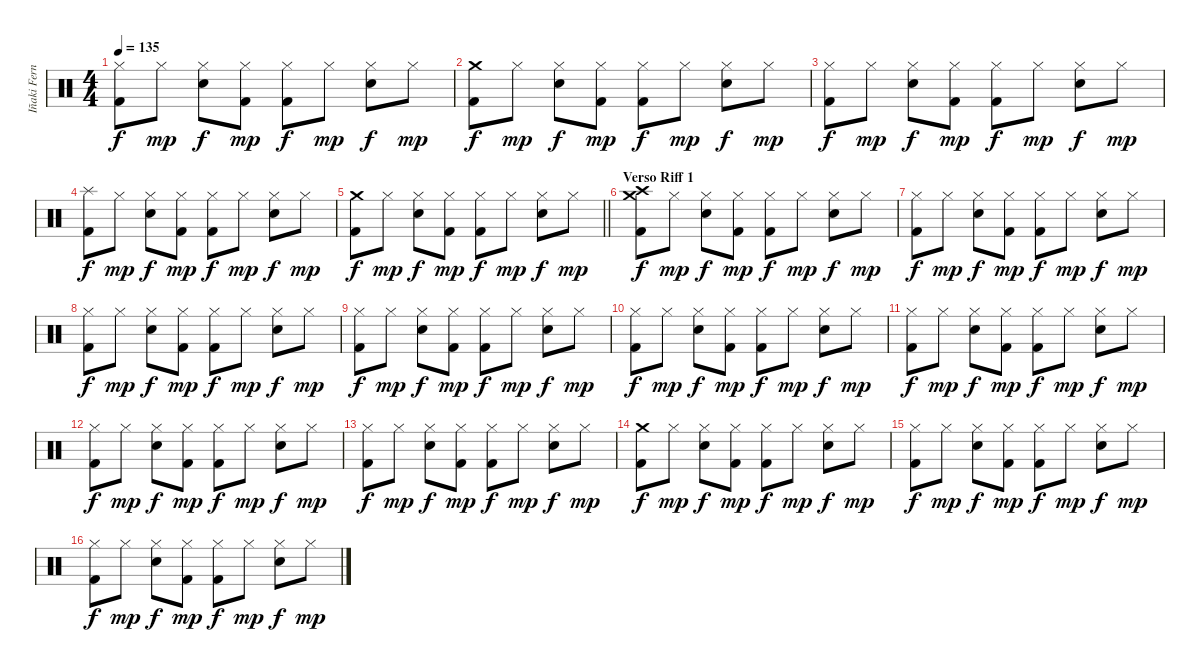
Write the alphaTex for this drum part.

\track ("Iñaki Fernández" "Iñaki Fern") {instrument percussion}
\staff {score}
\articulation defaults
\ts (4 4)
\tempo 135
\clef neutral
\ks c
("Hi-Hat (closed)" "Kick (hit) 2").8{dy f} "Hi-Hat (closed)".8{dy mp} ("Hi-Hat (closed)" "Snare (hit) 2").8{dy f} ("Hi-Hat (closed)" "Kick (hit) 2").8{dy mp} ("Hi-Hat (closed)" "Kick (hit) 2").8{dy f} "Hi-Hat (closed)".8{dy mp} ("Hi-Hat (closed)" "Snare (hit) 2").8{dy f} "Hi-Hat (closed)".8{dy mp} |
("Crash medium (hit)" "Kick (hit) 2").8{dy f} "Hi-Hat (closed)".8{dy mp} ("Hi-Hat (closed)" "Snare (hit) 2").8{dy f} ("Hi-Hat (closed)" "Kick (hit) 2").8{dy mp} ("Hi-Hat (closed)" "Kick (hit) 2").8{dy f} "Hi-Hat (closed)".8{dy mp} ("Hi-Hat (closed)" "Snare (hit) 2").8{dy f} "Hi-Hat (closed)".8{dy mp} |
("Hi-Hat (closed)" "Kick (hit) 2").8{dy f} "Hi-Hat (closed)".8{dy mp} ("Hi-Hat (closed)" "Snare (hit) 2").8{dy f} ("Hi-Hat (closed)" "Kick (hit) 2").8{dy mp} ("Hi-Hat (closed)" "Kick (hit) 2").8{dy f} "Hi-Hat (closed)".8{dy mp} ("Hi-Hat (closed)" "Snare (hit) 2").8{dy f} "Hi-Hat (closed)".8{dy mp} |
("Splash (hit)" "Kick (hit) 2").8{dy f} "Hi-Hat (closed)".8{dy mp} ("Hi-Hat (closed)" "Snare (hit) 2").8{dy f} ("Hi-Hat (closed)" "Kick (hit) 2").8{dy mp} ("Hi-Hat (closed)" "Kick (hit) 2").8{dy f} "Hi-Hat (closed)".8{dy mp} ("Hi-Hat (closed)" "Snare (hit) 2").8{dy f} "Hi-Hat (closed)".8{dy mp} |
\barLineRight lightlight
("Crash medium (hit)" "Kick (hit) 2").8{dy f} "Hi-Hat (closed)".8{dy mp} ("Hi-Hat (closed)" "Snare (hit) 2").8{dy f} ("Hi-Hat (closed)" "Kick (hit) 2").8{dy mp} ("Hi-Hat (closed)" "Kick (hit) 2").8{dy f} "Hi-Hat (closed)".8{dy mp} ("Hi-Hat (closed)" "Snare (hit) 2").8{dy f} "Hi-Hat (closed)".8{dy mp} |
\section ("" "Verso Riff 1")
("Crash medium (hit)" "Crash high (hit)" "Kick (hit) 2").8{dy f} "Hi-Hat (closed)".8{dy mp} ("Hi-Hat (closed)" "Snare (hit) 2").8{dy f} ("Hi-Hat (closed)" "Kick (hit) 2").8{dy mp} ("Hi-Hat (closed)" "Kick (hit) 2").8{dy f} "Hi-Hat (closed)".8{dy mp} ("Hi-Hat (closed)" "Snare (hit) 2").8{dy f} "Hi-Hat (closed)".8{dy mp} |
("Hi-Hat (closed)" "Kick (hit) 2").8{dy f} "Hi-Hat (closed)".8{dy mp} ("Hi-Hat (closed)" "Snare (hit) 2").8{dy f} ("Hi-Hat (closed)" "Kick (hit) 2").8{dy mp} ("Hi-Hat (closed)" "Kick (hit) 2").8{dy f} "Hi-Hat (closed)".8{dy mp} ("Hi-Hat (closed)" "Snare (hit) 2").8{dy f} "Hi-Hat (closed)".8{dy mp} |
("Hi-Hat (closed)" "Kick (hit) 2").8{dy f} "Hi-Hat (closed)".8{dy mp} ("Hi-Hat (closed)" "Snare (hit) 2").8{dy f} ("Hi-Hat (closed)" "Kick (hit) 2").8{dy mp} ("Hi-Hat (closed)" "Kick (hit) 2").8{dy f} "Hi-Hat (closed)".8{dy mp} ("Hi-Hat (closed)" "Snare (hit) 2").8{dy f} "Hi-Hat (closed)".8{dy mp} |
("Hi-Hat (closed)" "Kick (hit) 2").8{dy f} "Hi-Hat (closed)".8{dy mp} ("Hi-Hat (closed)" "Snare (hit) 2").8{dy f} ("Hi-Hat (closed)" "Kick (hit) 2").8{dy mp} ("Hi-Hat (closed)" "Kick (hit) 2").8{dy f} "Hi-Hat (closed)".8{dy mp} ("Hi-Hat (closed)" "Snare (hit) 2").8{dy f} "Hi-Hat (closed)".8{dy mp} |
("Hi-Hat (closed)" "Kick (hit) 2").8{dy f} "Hi-Hat (closed)".8{dy mp} ("Hi-Hat (closed)" "Snare (hit) 2").8{dy f} ("Hi-Hat (closed)" "Kick (hit) 2").8{dy mp} ("Hi-Hat (closed)" "Kick (hit) 2").8{dy f} "Hi-Hat (closed)".8{dy mp} ("Hi-Hat (closed)" "Snare (hit) 2").8{dy f} "Hi-Hat (closed)".8{dy mp} |
("Hi-Hat (closed)" "Kick (hit) 2").8{dy f} "Hi-Hat (closed)".8{dy mp} ("Hi-Hat (closed)" "Snare (hit) 2").8{dy f} ("Hi-Hat (closed)" "Kick (hit) 2").8{dy mp} ("Hi-Hat (closed)" "Kick (hit) 2").8{dy f} "Hi-Hat (closed)".8{dy mp} ("Hi-Hat (closed)" "Snare (hit) 2").8{dy f} "Hi-Hat (closed)".8{dy mp} |
("Hi-Hat (closed)" "Kick (hit) 2").8{dy f} "Hi-Hat (closed)".8{dy mp} ("Hi-Hat (closed)" "Snare (hit) 2").8{dy f} ("Hi-Hat (closed)" "Kick (hit) 2").8{dy mp} ("Hi-Hat (closed)" "Kick (hit) 2").8{dy f} "Hi-Hat (closed)".8{dy mp} ("Hi-Hat (closed)" "Snare (hit) 2").8{dy f} "Hi-Hat (closed)".8{dy mp} |
("Hi-Hat (closed)" "Kick (hit) 2").8{dy f} "Hi-Hat (closed)".8{dy mp} ("Hi-Hat (closed)" "Snare (hit) 2").8{dy f} ("Hi-Hat (closed)" "Kick (hit) 2").8{dy mp} ("Hi-Hat (closed)" "Kick (hit) 2").8{dy f} "Hi-Hat (closed)".8{dy mp} ("Hi-Hat (closed)" "Snare (hit) 2").8{dy f} "Hi-Hat (closed)".8{dy mp} |
("Crash medium (hit)" "Kick (hit) 2").8{dy f} "Hi-Hat (closed)".8{dy mp} ("Hi-Hat (closed)" "Snare (hit) 2").8{dy f} ("Hi-Hat (closed)" "Kick (hit) 2").8{dy mp} ("Hi-Hat (closed)" "Kick (hit) 2").8{dy f} "Hi-Hat (closed)".8{dy mp} ("Hi-Hat (closed)" "Snare (hit) 2").8{dy f} "Hi-Hat (closed)".8{dy mp} |
("Hi-Hat (closed)" "Kick (hit) 2").8{dy f} "Hi-Hat (closed)".8{dy mp} ("Hi-Hat (closed)" "Snare (hit) 2").8{dy f} ("Hi-Hat (closed)" "Kick (hit) 2").8{dy mp} ("Hi-Hat (closed)" "Kick (hit) 2").8{dy f} "Hi-Hat (closed)".8{dy mp} ("Hi-Hat (closed)" "Snare (hit) 2").8{dy f} "Hi-Hat (closed)".8{dy mp} |
("Hi-Hat (closed)" "Kick (hit) 2").8{dy f} "Hi-Hat (closed)".8{dy mp} ("Hi-Hat (closed)" "Snare (hit) 2").8{dy f} ("Hi-Hat (closed)" "Kick (hit) 2").8{dy mp} ("Hi-Hat (closed)" "Kick (hit) 2").8{dy f} "Hi-Hat (closed)".8{dy mp} ("Hi-Hat (closed)" "Snare (hit) 2").8{dy f} "Hi-Hat (closed)".8{dy mp}
